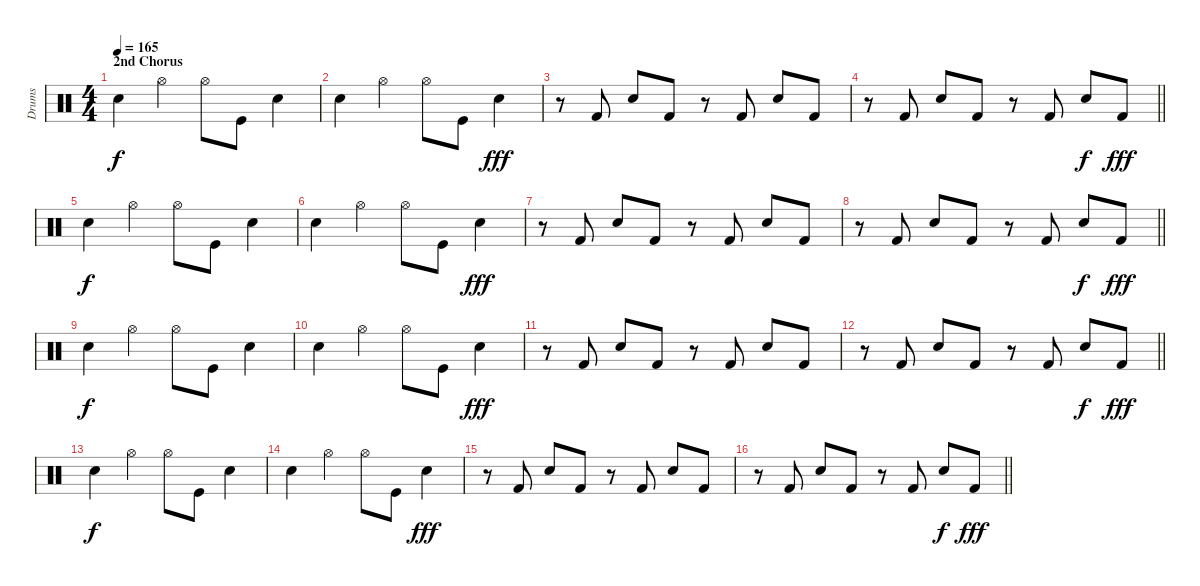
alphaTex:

\track ("Drums" "Drums") {instrument percussion}
\staff {score}
\articulation defaults
\ts (4 4)
\section ("" "2nd Chorus")
\tempo 165
\clef neutral
\ks c "Snare (hit) 2".4{dy f} "Hi-Hat (open)".4 "Hi-Hat (open)".8 "Kick (hit)".8 "Snare (hit) 2".4
|
"Snare (hit) 2".4 "Hi-Hat (open)".4 "Hi-Hat (open)".8 "Kick (hit)".8 "Snare (hit) 2".4{dy fff} |
r.8 "Kick (hit) 2".8 "Snare (hit) 2".8 "Kick (hit) 2".8 r.8 "Kick (hit) 2".8 "Snare (hit) 2".8 "Kick (hit) 2".8 |
\barLineRight lightlight
r.8 "Kick (hit) 2".8 "Snare (hit) 2".8 "Kick (hit) 2".8 r.8 "Kick (hit) 2".8 "Snare (hit) 2".8{dy f} "Kick (hit) 2".8{dy fff} |
"Snare (hit) 2".4{dy f} "Hi-Hat (open)".4 "Hi-Hat (open)".8 "Kick (hit)".8 "Snare (hit) 2".4 |
"Snare (hit) 2".4 "Hi-Hat (open)".4 "Hi-Hat (open)".8 "Kick (hit)".8 "Snare (hit) 2".4{dy fff} |
r.8 "Kick (hit) 2".8 "Snare (hit) 2".8 "Kick (hit) 2".8 r.8 "Kick (hit) 2".8 "Snare (hit) 2".8 "Kick (hit) 2".8 |
\barLineRight lightlight
r.8 "Kick (hit) 2".8 "Snare (hit) 2".8 "Kick (hit) 2".8 r.8 "Kick (hit) 2".8 "Snare (hit) 2".8{dy f} "Kick (hit) 2".8{dy fff} |
"Snare (hit) 2".4{dy f} "Hi-Hat (open)".4 "Hi-Hat (open)".8 "Kick (hit)".8 "Snare (hit) 2".4 |
"Snare (hit) 2".4 "Hi-Hat (open)".4 "Hi-Hat (open)".8 "Kick (hit)".8 "Snare (hit) 2".4{dy fff} |
r.8 "Kick (hit) 2".8 "Snare (hit) 2".8 "Kick (hit) 2".8 r.8 "Kick (hit) 2".8 "Snare (hit) 2".8 "Kick (hit) 2".8 |
\barLineRight lightlight
r.8 "Kick (hit) 2".8 "Snare (hit) 2".8 "Kick (hit) 2".8 r.8 "Kick (hit) 2".8 "Snare (hit) 2".8{dy f} "Kick (hit) 2".8{dy fff} |
"Snare (hit) 2".4{dy f} "Hi-Hat (open)".4 "Hi-Hat (open)".8 "Kick (hit)".8 "Snare (hit) 2".4 |
"Snare (hit) 2".4 "Hi-Hat (open)".4 "Hi-Hat (open)".8 "Kick (hit)".8 "Snare (hit) 2".4{dy fff} |
r.8 "Kick (hit) 2".8 "Snare (hit) 2".8 "Kick (hit) 2".8 r.8 "Kick (hit) 2".8 "Snare (hit) 2".8 "Kick (hit) 2".8 |
\barLineRight lightlight
r.8 "Kick (hit) 2".8 "Snare (hit) 2".8 "Kick (hit) 2".8 r.8 "Kick (hit) 2".8 "Snare (hit) 2".8{dy f} "Kick (hit) 2".8{dy fff}
